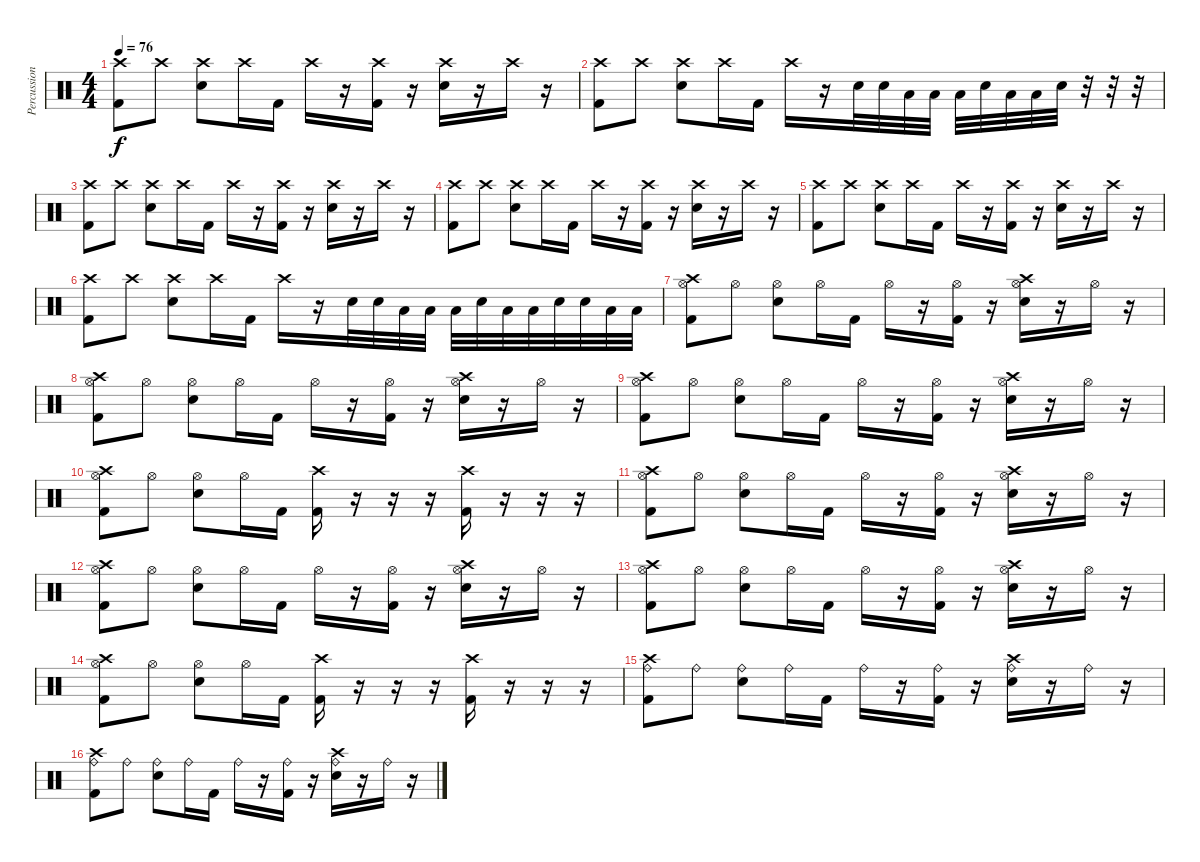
\track ("Percussion" "Percussion") {instrument percussion}
\staff {score}
\articulation defaults
\ts (4 4)
\tempo 76
\clef neutral
\ks c
("Crash high (hit)" "Kick (hit) 2").8{dy f} "Crash high (hit)".8 ("Crash high (hit)" "Electric Snare (hit)").8 "Crash high (hit)".16 "Kick (hit) 2".16 "Crash high (hit)".16 r.16 ("Crash high (hit)" "Kick (hit) 2").16 r.16 ("Crash high (hit)" "Electric Snare (hit)").16 r.16 "Crash high (hit)".16 r.16 |
("Crash high (hit)" "Kick (hit) 2").8 "Crash high (hit)".8 ("Crash high (hit)" "Electric Snare (hit)").8 "Crash high (hit)".16 "Kick (hit) 2".16 "Crash high (hit)".16 r.16 "Electric Snare (hit)".32 "Electric Snare (hit)".32 "Low Tom (hit)".32 "Low Tom (hit)".32 "Low Tom (hit)".32 "Electric Snare (hit)".32 "Low Floor Tom (hit)".32 "Low Floor Tom (hit)".32 "Electric Snare (hit)".32 r.32 r.32 r.32 |
("Crash high (hit)" "Kick (hit) 2").8 "Crash high (hit)".8 ("Crash high (hit)" "Electric Snare (hit)").8 "Crash high (hit)".16 "Kick (hit) 2".16 "Crash high (hit)".16 r.16 ("Crash high (hit)" "Kick (hit) 2").16 r.16 ("Crash high (hit)" "Electric Snare (hit)").16 r.16 "Crash high (hit)".16 r.16 |
("Crash high (hit)" "Kick (hit) 2").8 "Crash high (hit)".8 ("Crash high (hit)" "Electric Snare (hit)").8 "Crash high (hit)".16 "Kick (hit) 2".16 "Crash high (hit)".16 r.16 ("Crash high (hit)" "Kick (hit) 2").16 r.16 ("Crash high (hit)" "Electric Snare (hit)").16 r.16 "Crash high (hit)".16 r.16 |
("Crash high (hit)" "Kick (hit) 2").8 "Crash high (hit)".8 ("Crash high (hit)" "Electric Snare (hit)").8 "Crash high (hit)".16 "Kick (hit) 2".16 "Crash high (hit)".16 r.16 ("Crash high (hit)" "Kick (hit) 2").16 r.16 ("Crash high (hit)" "Electric Snare (hit)").16 r.16 "Crash high (hit)".16 r.16 |
("Crash high (hit)" "Kick (hit) 2").8 "Crash high (hit)".8 ("Crash high (hit)" "Electric Snare (hit)").8 "Crash high (hit)".16 "Kick (hit) 2".16 "Crash high (hit)".16 r.16 "Electric Snare (hit)".32 "Electric Snare (hit)".32 "Low Tom (hit)".32 "Low Tom (hit)".32 "Low Tom (hit)".32 "Electric Snare (hit)".32 "Low Floor Tom (hit)".32 "Low Floor Tom (hit)".32 "Electric Snare (hit)".32 "Electric Snare (hit)".32 "Low Floor Tom (hit)".32 "Low Floor Tom (hit)".32 |
("Crash high (hit)" "Hi-Hat (open)" "Kick (hit) 2").8 "Hi-Hat (open)".8 ("Hi-Hat (open)" "Electric Snare (hit)").8 "Hi-Hat (open)".16 "Kick (hit) 2".16 "Hi-Hat (open)".16 r.16 ("Hi-Hat (open)" "Kick (hit) 2").16 r.16 ("Crash high (hit)" "Hi-Hat (open)" "Electric Snare (hit)").16 r.16 "Hi-Hat (open)".16 r.16 |
("Crash high (hit)" "Hi-Hat (open)" "Kick (hit) 2").8 "Hi-Hat (open)".8 ("Hi-Hat (open)" "Electric Snare (hit)").8 "Hi-Hat (open)".16 "Kick (hit) 2".16 "Hi-Hat (open)".16 r.16 ("Hi-Hat (open)" "Kick (hit) 2").16 r.16 ("Crash high (hit)" "Hi-Hat (open)" "Electric Snare (hit)").16 r.16 "Hi-Hat (open)".16 r.16 |
("Crash high (hit)" "Hi-Hat (open)" "Kick (hit) 2").8 "Hi-Hat (open)".8 ("Hi-Hat (open)" "Electric Snare (hit)").8 "Hi-Hat (open)".16 "Kick (hit) 2".16 "Hi-Hat (open)".16 r.16 ("Hi-Hat (open)" "Kick (hit) 2").16 r.16 ("Crash high (hit)" "Hi-Hat (open)" "Electric Snare (hit)").16 r.16 "Hi-Hat (open)".16 r.16 |
("Crash high (hit)" "Hi-Hat (open)" "Kick (hit) 2").8 "Hi-Hat (open)".8 ("Hi-Hat (open)" "Electric Snare (hit)").8 "Hi-Hat (open)".16 "Kick (hit) 2".16 ("Crash high (hit)" "Kick (hit) 2").16 r.16 r.16{volume 0} r.16 ("Crash high (hit)" "Kick (hit) 2").16{volume 13} r.16 r.16{volume 0} r.16 |
("Crash high (hit)" "Hi-Hat (open)" "Kick (hit) 2").8{volume 13} "Hi-Hat (open)".8 ("Hi-Hat (open)" "Electric Snare (hit)").8 "Hi-Hat (open)".16 "Kick (hit) 2".16 "Hi-Hat (open)".16 r.16 ("Hi-Hat (open)" "Kick (hit) 2").16 r.16 ("Crash high (hit)" "Hi-Hat (open)" "Electric Snare (hit)").16 r.16 "Hi-Hat (open)".16 r.16 |
("Crash high (hit)" "Hi-Hat (open)" "Kick (hit) 2").8 "Hi-Hat (open)".8 ("Hi-Hat (open)" "Electric Snare (hit)").8 "Hi-Hat (open)".16 "Kick (hit) 2".16 "Hi-Hat (open)".16 r.16 ("Hi-Hat (open)" "Kick (hit) 2").16 r.16 ("Crash high (hit)" "Hi-Hat (open)" "Electric Snare (hit)").16 r.16 "Hi-Hat (open)".16 r.16 |
("Crash high (hit)" "Hi-Hat (open)" "Kick (hit) 2").8 "Hi-Hat (open)".8 ("Hi-Hat (open)" "Electric Snare (hit)").8 "Hi-Hat (open)".16 "Kick (hit) 2".16 "Hi-Hat (open)".16 r.16 ("Hi-Hat (open)" "Kick (hit) 2").16 r.16 ("Crash high (hit)" "Hi-Hat (open)" "Electric Snare (hit)").16 r.16 "Hi-Hat (open)".16 r.16 |
("Crash high (hit)" "Hi-Hat (open)" "Kick (hit) 2").8 "Hi-Hat (open)".8 ("Hi-Hat (open)" "Electric Snare (hit)").8 "Hi-Hat (open)".16 "Kick (hit) 2".16 ("Crash high (hit)" "Kick (hit) 2").16 r.16 r.16{volume 0} r.16 ("Crash high (hit)" "Kick (hit) 2").16{volume 13} r.16 r.16{volume 0} r.16 |
("Crash high (hit)" "Ride (bell)" "Kick (hit) 2").8{volume 13} "Ride (bell)".8 ("Ride (bell)" "Electric Snare (hit)").8 "Ride (bell)".16 "Kick (hit) 2".16 "Ride (bell)".16 r.16 ("Ride (bell)" "Kick (hit) 2").16 r.16 ("Crash high (hit)" "Ride (bell)" "Electric Snare (hit)").16 r.16 "Ride (bell)".16 r.16 |
("Crash high (hit)" "Ride (bell)" "Kick (hit) 2").8{volume 13} "Ride (bell)".8 ("Ride (bell)" "Electric Snare (hit)").8 "Ride (bell)".16 "Kick (hit) 2".16 "Ride (bell)".16 r.16 ("Ride (bell)" "Kick (hit) 2").16 r.16 ("Crash high (hit)" "Ride (bell)" "Electric Snare (hit)").16 r.16 "Ride (bell)".16 r.16
